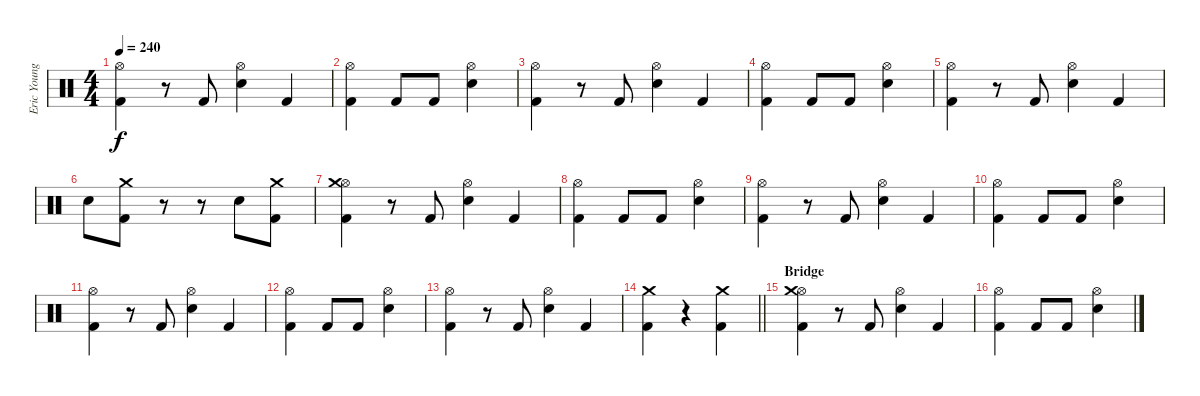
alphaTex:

\track ("Eric Young (Drums)" "Eric Young") {instrument percussion}
\staff {score}
\articulation defaults
\ts (4 4)
\tempo 240
\clef neutral
\ks c
("Hi-Hat (open)" "Kick (hit) 2").4{dy f} r.8 "Kick (hit) 2".8 ("Hi-Hat (open)" "Snare (hit) 2").4 "Kick (hit) 2".4 |
("Hi-Hat (open)" "Kick (hit) 2").4 "Kick (hit) 2".8 "Kick (hit) 2".8 ("Hi-Hat (open)" "Snare (hit) 2").4 |
("Hi-Hat (open)" "Kick (hit) 2").4 r.8 "Kick (hit) 2".8 ("Hi-Hat (open)" "Snare (hit) 2").4 "Kick (hit) 2".4 |
("Hi-Hat (open)" "Kick (hit) 2").4 "Kick (hit) 2".8 "Kick (hit) 2".8 ("Hi-Hat (open)" "Snare (hit) 2").4 |
("Hi-Hat (open)" "Kick (hit) 2").4 r.8 "Kick (hit) 2".8 ("Hi-Hat (open)" "Snare (hit) 2").4 "Kick (hit) 2".4 |
"Snare (hit) 2".8 ("Kick (hit) 2" "Crash medium (hit)").8 r.8 r.8 "Snare (hit) 2".8 ("Kick (hit) 2" "Crash medium (hit)").8 |
("Hi-Hat (open)" "Kick (hit) 2" "Crash medium (hit)").4 r.8 "Kick (hit) 2".8 ("Hi-Hat (open)" "Snare (hit) 2").4 "Kick (hit) 2".4 |
("Hi-Hat (open)" "Kick (hit) 2").4 "Kick (hit) 2".8 "Kick (hit) 2".8 ("Hi-Hat (open)" "Snare (hit) 2").4 |
("Hi-Hat (open)" "Kick (hit) 2").4 r.8 "Kick (hit) 2".8 ("Hi-Hat (open)" "Snare (hit) 2").4 "Kick (hit) 2".4 |
("Hi-Hat (open)" "Kick (hit) 2").4 "Kick (hit) 2".8 "Kick (hit) 2".8 ("Hi-Hat (open)" "Snare (hit) 2").4 |
("Hi-Hat (open)" "Kick (hit) 2").4 r.8 "Kick (hit) 2".8 ("Hi-Hat (open)" "Snare (hit) 2").4 "Kick (hit) 2".4 |
("Hi-Hat (open)" "Kick (hit) 2").4 "Kick (hit) 2".8 "Kick (hit) 2".8 ("Hi-Hat (open)" "Snare (hit) 2").4 |
("Hi-Hat (open)" "Kick (hit) 2").4 r.8 "Kick (hit) 2".8 ("Hi-Hat (open)" "Snare (hit) 2").4 "Kick (hit) 2".4 |
\barLineRight lightlight
("Kick (hit) 2" "Crash medium (hit)").4 r.4 ("Kick (hit) 2" "Crash medium (hit)").4 |
\section ("" "Bridge")
("Hi-Hat (open)" "Kick (hit) 2" "Crash medium (hit)").4 r.8 "Kick (hit) 2".8 ("Hi-Hat (open)" "Snare (hit) 2").4 "Kick (hit) 2".4 |
("Hi-Hat (open)" "Kick (hit) 2").4 "Kick (hit) 2".8 "Kick (hit) 2".8 ("Hi-Hat (open)" "Snare (hit) 2").4
